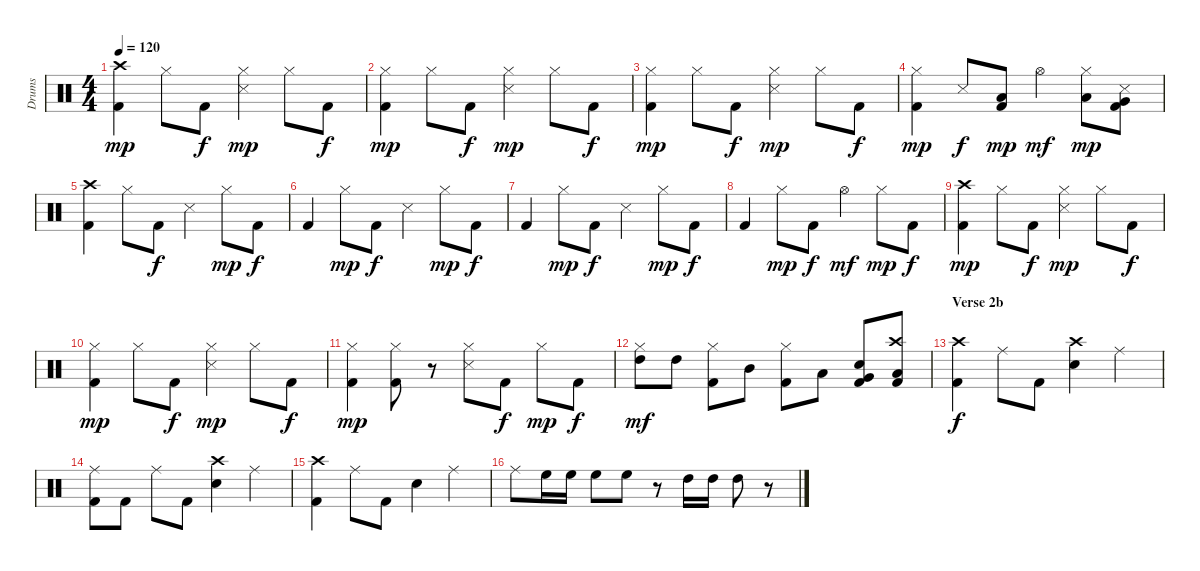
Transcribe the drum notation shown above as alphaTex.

\track ("Drums" "Drums") {instrument percussion}
\staff {score}
\articulation defaults
\ts (4 4)
\tempo 120
\clef neutral
\ks c
("Kick (hit) 2" "Crash high (hit)").4{dy mp} "Hi-Hat (closed)".8 "Kick (hit) 2".8{dy f} ("Hi-Hat (closed)" "Snare (side stick) 3").4{dy mp} "Hi-Hat (closed)".8 "Kick (hit) 2".8{dy f} |
("Kick (hit) 2" "Hi-Hat (closed)").4{dy mp} "Hi-Hat (closed)".8 "Kick (hit) 2".8{dy f} ("Hi-Hat (closed)" "Snare (side stick) 3").4{dy mp} "Hi-Hat (closed)".8 "Kick (hit) 2".8{dy f} |
("Kick (hit) 2" "Hi-Hat (closed)").4{dy mp} "Hi-Hat (closed)".8 "Kick (hit) 2".8{dy f} ("Hi-Hat (closed)" "Snare (side stick) 3").4{dy mp} "Hi-Hat (closed)".8 "Kick (hit) 2".8{dy f} |
("Kick (hit) 2" "Hi-Hat (closed)").4{dy mp} "Snare (side stick) 3".8{dy f} ("Kick (hit) 2" "Low Tom (hit)").8{dy mp} "Hi-Hat (open)".4{dy mf} ("Hi-Hat (closed)" "Low Tom (hit)").8{dy mp} ("Kick (hit) 2" "Snare (side stick) 3" "Very Low Tom (hit)").8 |
("Kick (hit) 2" "Crash high (hit)").4 "Hi-Hat (closed)".8 "Kick (hit) 2".8{dy f} "Snare (side stick) 3".4 "Hi-Hat (closed)".8{dy mp} "Kick (hit) 2".8{dy f} |
"Kick (hit) 2".4 "Hi-Hat (closed)".8{dy mp} "Kick (hit) 2".8{dy f} "Snare (side stick) 3".4 "Hi-Hat (closed)".8{dy mp} "Kick (hit) 2".8{dy f} |
"Kick (hit) 2".4 "Hi-Hat (closed)".8{dy mp} "Kick (hit) 2".8{dy f} "Snare (side stick) 3".4 "Hi-Hat (closed)".8{dy mp} "Kick (hit) 2".8{dy f} |
"Kick (hit) 2".4 "Hi-Hat (closed)".8{dy mp} "Kick (hit) 2".8{dy f} "Hi-Hat (open)".4{dy mf} "Hi-Hat (closed)".8{dy mp} "Kick (hit) 2".8{dy f} |
("Kick (hit) 2" "Crash high (hit)").4{dy mp} "Hi-Hat (closed)".8 "Kick (hit) 2".8{dy f} ("Hi-Hat (closed)" "Snare (side stick) 3").4{dy mp} "Hi-Hat (closed)".8 "Kick (hit) 2".8{dy f} |
("Kick (hit) 2" "Hi-Hat (closed)").4{dy mp} "Hi-Hat (closed)".8 "Kick (hit) 2".8{dy f} ("Hi-Hat (closed)" "Snare (side stick) 3").4{dy mp} "Hi-Hat (closed)".8 "Kick (hit) 2".8{dy f} |
("Kick (hit) 2" "Hi-Hat (closed)").4{dy mp} ("Kick (hit) 2" "Hi-Hat (closed)").8 r.8 ("Hi-Hat (closed)" "Snare (side stick) 3").8 "Kick (hit) 2".8{dy f} "Hi-Hat (closed)".8{dy mp} "Kick (hit) 2".8{dy f} |
("Hi-Hat (closed)" "High Tom (hit)").8{dy mf} "High Tom (hit)".8 ("Kick (hit) 2" "Hi-Hat (closed)").8 "Mid Tom (hit)".8 ("Kick (hit) 2" "Hi-Hat (closed)").8 "Low Tom (hit)".8 ("Kick (hit) 2" "Snare (hit) 2" "Very Low Tom (hit)").8 ("Kick (hit) 2" "Low Floor Tom (hit)" "Crash high (hit)").8 |
\section ("" "Verse 2b")
("Kick (hit) 2" "Crash high (hit)").4{dy f} "Ride (middle)".8 "Kick (hit) 2".8 ("Snare (hit) 2" "Crash high (hit)").4 "Ride (middle)".4 |
("Kick (hit) 2" "Ride (middle)").8 "Kick (hit) 2".8 "Ride (middle)".8 "Kick (hit) 2".8 ("Snare (hit) 2" "Crash high (hit)").4 "Ride (middle)".4 |
("Kick (hit) 2" "Crash high (hit)").4 "Ride (middle)".8 "Kick (hit) 2".8 "Snare (hit) 2".4 "Ride (middle)".4 |
"Ride (middle)".8 "High Floor Tom (hit)".16 "High Floor Tom (hit)".16 "High Floor Tom (hit)".8 "High Floor Tom (hit)".8 r.8 "High Tom (hit)".16 "High Tom (hit)".16 "High Tom (hit)".8 r.8
